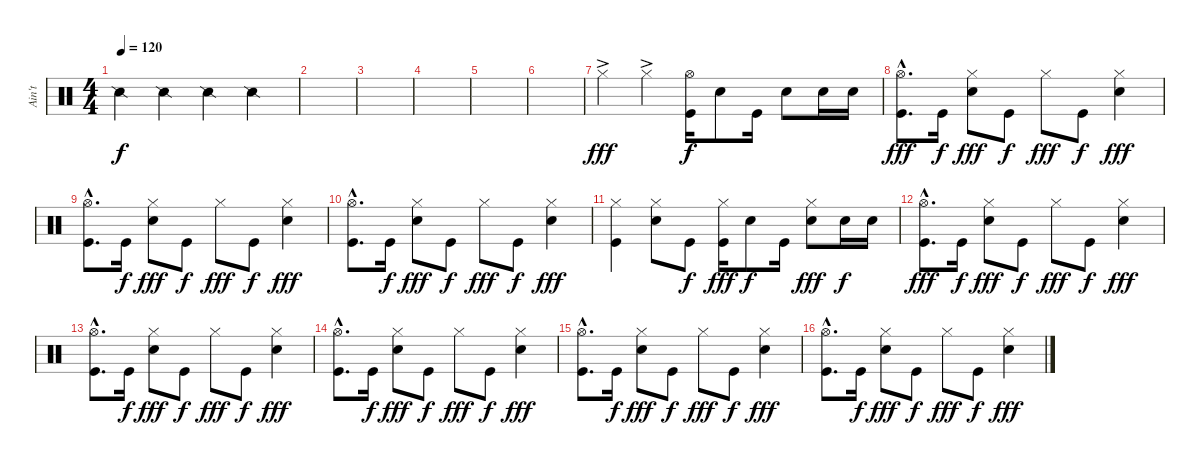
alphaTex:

\track ("Ain't" "Ain't") {instrument percussion}
\staff {score}
\articulation defaults
\ts (4 4)
\tempo 120
\clef neutral
\ks c "Snare (side stick) 2".4{dy f} "Snare (side stick) 2".4 "Snare (side stick) 2".4 "Snare (side stick) 2".4
|
|
|
|
|
|
"Hi-Hat (closed)"{ac}.4{dy fff} "Hi-Hat (closed)"{ac}.4 ("Hi-Hat (open)" "Kick (hit)").16{dy f} "Electric Snare (hit)".8 "Kick (hit)".16 "Electric Snare (hit)".8 "Electric Snare (hit)".16 "Electric Snare (hit)".16 |
("Hi-Hat (open)"{hac} "Kick (hit)"{hac}).8{d dy fff} "Kick (hit)".16{dy f} ("Hi-Hat (closed)" "Electric Snare (hit)").8{dy fff} "Kick (hit)".8{dy f} "Hi-Hat (closed)".8{dy fff} "Kick (hit)".8{dy f} ("Hi-Hat (closed)" "Electric Snare (hit)").4{dy fff} |
("Hi-Hat (open)"{hac} "Kick (hit)"{hac}).8{d} "Kick (hit)".16{dy f} ("Hi-Hat (closed)" "Electric Snare (hit)").8{dy fff} "Kick (hit)".8{dy f} "Hi-Hat (closed)".8{dy fff} "Kick (hit)".8{dy f} ("Hi-Hat (closed)" "Electric Snare (hit)").4{dy fff} |
("Hi-Hat (open)"{hac} "Kick (hit)"{hac}).8{d} "Kick (hit)".16{dy f} ("Hi-Hat (closed)" "Electric Snare (hit)").8{dy fff} "Kick (hit)".8{dy f} "Hi-Hat (closed)".8{dy fff} "Kick (hit)".8{dy f} ("Hi-Hat (closed)" "Electric Snare (hit)").4{dy fff} |
("Hi-Hat (closed)" "Kick (hit)").4 ("Hi-Hat (closed)" "Electric Snare (hit)").8 "Kick (hit)".8{dy f} ("Hi-Hat (closed)" "Kick (hit)").16{dy fff} "Electric Snare (hit)".8{dy f} "Kick (hit)".16 ("Hi-Hat (closed)" "Electric Snare (hit)").8{dy fff} "Electric Snare (hit)".16{dy f} "Electric Snare (hit)".16 |
("Hi-Hat (open)"{hac} "Kick (hit)"{hac}).8{d dy fff} "Kick (hit)".16{dy f} ("Hi-Hat (closed)" "Electric Snare (hit)").8{dy fff} "Kick (hit)".8{dy f} "Hi-Hat (closed)".8{dy fff} "Kick (hit)".8{dy f} ("Hi-Hat (closed)" "Electric Snare (hit)").4{dy fff} |
("Hi-Hat (open)"{hac} "Kick (hit)"{hac}).8{d} "Kick (hit)".16{dy f} ("Hi-Hat (closed)" "Electric Snare (hit)").8{dy fff} "Kick (hit)".8{dy f} "Hi-Hat (closed)".8{dy fff} "Kick (hit)".8{dy f} ("Hi-Hat (closed)" "Electric Snare (hit)").4{dy fff} |
("Hi-Hat (open)"{hac} "Kick (hit)"{hac}).8{d} "Kick (hit)".16{dy f} ("Hi-Hat (closed)" "Electric Snare (hit)").8{dy fff} "Kick (hit)".8{dy f} "Hi-Hat (closed)".8{dy fff} "Kick (hit)".8{dy f} ("Hi-Hat (closed)" "Electric Snare (hit)").4{dy fff} |
("Hi-Hat (open)"{hac} "Kick (hit)"{hac}).8{d} "Kick (hit)".16{dy f} ("Hi-Hat (closed)" "Electric Snare (hit)").8{dy fff} "Kick (hit)".8{dy f} "Hi-Hat (closed)".8{dy fff} "Kick (hit)".8{dy f} ("Hi-Hat (closed)" "Electric Snare (hit)").4{dy fff} |
("Hi-Hat (open)"{hac} "Kick (hit)"{hac}).8{d} "Kick (hit)".16{dy f} ("Hi-Hat (closed)" "Electric Snare (hit)").8{dy fff} "Kick (hit)".8{dy f} "Hi-Hat (closed)".8{dy fff} "Kick (hit)".8{dy f} ("Hi-Hat (closed)" "Electric Snare (hit)").4{dy fff}
